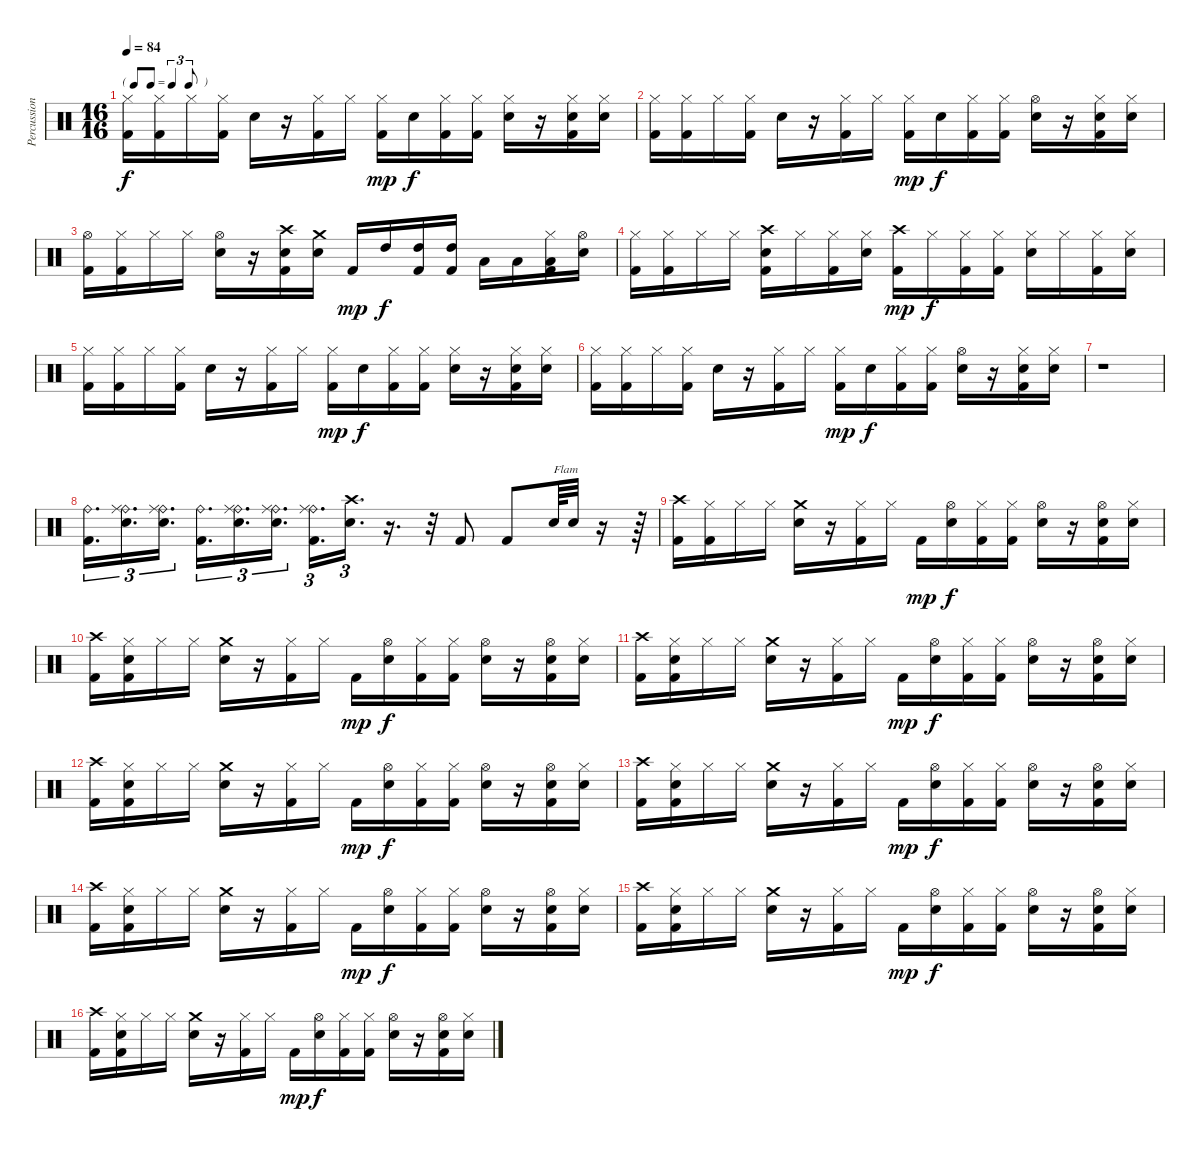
\track ("Percussion" "Percussion") {instrument percussion}
\staff {score}
\articulation defaults
\ts (16 16)
\tf triplet8th
\tempo 84
\clef neutral
\ks c
("Hi-Hat (closed)" "Kick (hit) 2").16{dy f} ("Hi-Hat (closed)" "Kick (hit) 2").16 "Hi-Hat (closed)".16 ("Hi-Hat (closed)" "Kick (hit) 2").16 "Electric Snare (hit)".16 r.16 ("Hi-Hat (closed)" "Kick (hit) 2").16 "Hi-Hat (closed)".16 ("Hi-Hat (closed)" "Kick (hit) 2").16{dy mp} "Electric Snare (hit)".16{dy f} ("Hi-Hat (closed)" "Kick (hit) 2").16 ("Hi-Hat (closed)" "Kick (hit) 2").16 ("Hi-Hat (closed)" "Electric Snare (hit)").16 r.16 ("Hi-Hat (closed)" "Electric Snare (hit)" "Kick (hit) 2").16 ("Hi-Hat (closed)" "Electric Snare (hit)").16 |
("Hi-Hat (closed)" "Kick (hit) 2").16 ("Hi-Hat (closed)" "Kick (hit) 2").16 "Hi-Hat (closed)".16 ("Hi-Hat (closed)" "Kick (hit) 2").16 "Electric Snare (hit)".16 r.16 ("Hi-Hat (closed)" "Kick (hit) 2").16 "Hi-Hat (closed)".16 ("Hi-Hat (closed)" "Kick (hit) 2").16{dy mp} "Electric Snare (hit)".16{dy f} ("Hi-Hat (closed)" "Kick (hit) 2").16 ("Hi-Hat (closed)" "Kick (hit) 2").16 ("Hi-Hat (open)" "Electric Snare (hit)").16 r.16 ("Hi-Hat (closed)" "Electric Snare (hit)" "Kick (hit) 2").16 ("Hi-Hat (closed)" "Electric Snare (hit)").16 |
("Hi-Hat (open)" "Kick (hit) 2").16 ("Hi-Hat (closed)" "Kick (hit) 2").16 "Hi-Hat (closed)".16 "Hi-Hat (closed)".16 ("Hi-Hat (open)" "Electric Snare (hit)").16 r.16 ("Crash high (hit)" "Electric Snare (hit)" "Kick (hit) 2").16 ("Crash medium (hit)" "Electric Snare (hit)").16 "Kick (hit) 2".16{dy mp} "High Tom (hit)".16{dy f} ("High Tom (hit)" "Kick (hit) 2").16 ("High Tom (hit)" "Kick (hit) 2").16 "Low Tom (hit)".16 "Low Tom (hit)".16 ("Hi-Hat (closed)" "Low Tom (hit)" "Kick (hit) 2").16 ("Hi-Hat (open)" "Electric Snare (hit)").16 |
("Hi-Hat (closed)" "Kick (hit) 2").16 ("Hi-Hat (closed)" "Kick (hit) 2").16 "Hi-Hat (closed)".16 "Hi-Hat (closed)".16 ("Crash high (hit)" "Electric Snare (hit)" "Kick (hit) 2").16 "Hi-Hat (closed)".16 ("Hi-Hat (closed)" "Kick (hit) 2").16 ("Hi-Hat (closed)" "Electric Snare (hit)").16 ("Crash high (hit)" "Kick (hit) 2").16{dy mp} "Hi-Hat (closed)".16{dy f} ("Hi-Hat (closed)" "Kick (hit) 2").16 ("Hi-Hat (closed)" "Kick (hit) 2").16 ("Hi-Hat (closed)" "Electric Snare (hit)").16 "Hi-Hat (closed)".16 ("Hi-Hat (closed)" "Kick (hit) 2").16 ("Hi-Hat (closed)" "Electric Snare (hit)").16 |
("Hi-Hat (closed)" "Kick (hit) 2").16 ("Hi-Hat (closed)" "Kick (hit) 2").16 "Hi-Hat (closed)".16 ("Hi-Hat (closed)" "Kick (hit) 2").16 "Electric Snare (hit)".16 r.16 ("Hi-Hat (closed)" "Kick (hit) 2").16 "Hi-Hat (closed)".16 ("Hi-Hat (closed)" "Kick (hit) 2").16{dy mp} "Electric Snare (hit)".16{dy f} ("Hi-Hat (closed)" "Kick (hit) 2").16 ("Hi-Hat (closed)" "Kick (hit) 2").16 ("Hi-Hat (closed)" "Electric Snare (hit)").16 r.16 ("Hi-Hat (closed)" "Electric Snare (hit)" "Kick (hit) 2").16 ("Hi-Hat (closed)" "Electric Snare (hit)").16 |
("Hi-Hat (closed)" "Kick (hit) 2").16 ("Hi-Hat (closed)" "Kick (hit) 2").16 "Hi-Hat (closed)".16 ("Hi-Hat (closed)" "Kick (hit) 2").16 "Electric Snare (hit)".16 r.16 ("Hi-Hat (closed)" "Kick (hit) 2").16 "Hi-Hat (closed)".16 ("Hi-Hat (closed)" "Kick (hit) 2").16{dy mp} "Electric Snare (hit)".16{dy f} ("Hi-Hat (closed)" "Kick (hit) 2").16 ("Hi-Hat (closed)" "Kick (hit) 2").16 ("Hi-Hat (open)" "Electric Snare (hit)").16 r.16 ("Hi-Hat (closed)" "Electric Snare (hit)" "Kick (hit) 2").16 ("Hi-Hat (closed)" "Electric Snare (hit)").16 |
r.1 |
("Ride (bell)" "Kick (hit) 2").16{d tu (3 2)} ("Ride (bell)" "Ride (middle)" "Electric Snare (hit)").16{d tu (3 2)} ("Ride (bell)" "Ride (middle)" "Electric Snare (hit)").16{d tu (3 2)} ("Ride (bell)" "Kick (hit) 2").16{d tu (3 2)} ("Ride (bell)" "Ride (middle)" "Electric Snare (hit)").16{d tu (3 2)} ("Ride (bell)" "Ride (middle)" "Electric Snare (hit)").16{d tu (3 2)} ("Ride (bell)" "Ride (middle)" "Kick (hit) 2").16{d tu (3 2)} ("Crash high (hit)" "Electric Snare (hit)").16{d tu (3 2)} r.16{d} r.32 "Kick (hit) 2".8 "Kick (hit) 2".8 "Electric Snare (hit)".64{txt "Flam"} "Electric Snare (hit)".32 r.16 r.64 |
("Crash high (hit)" "Kick (hit) 2").16 ("Hi-Hat (closed)" "Kick (hit) 2").16 "Hi-Hat (closed)".16 "Hi-Hat (closed)".16 ("Crash medium (hit)" "Electric Snare (hit)").16 r.16 ("Hi-Hat (closed)" "Kick (hit) 2").16 "Hi-Hat (closed)".16 "Kick (hit) 2".16{dy mp} ("Hi-Hat (open)" "Electric Snare (hit)").16{dy f} ("Hi-Hat (closed)" "Kick (hit) 2").16 ("Hi-Hat (closed)" "Kick (hit) 2").16 ("Hi-Hat (open)" "Electric Snare (hit)").16 r.16 ("Hi-Hat (open)" "Electric Snare (hit)" "Kick (hit) 2").16 ("Hi-Hat (closed)" "Electric Snare (hit)").16 |
("Crash high (hit)" "Kick (hit) 2").16 ("Hi-Hat (closed)" "Electric Snare (hit)" "Kick (hit) 2").16 "Hi-Hat (closed)".16 "Hi-Hat (closed)".16 ("Crash medium (hit)" "Electric Snare (hit)").16 r.16 ("Hi-Hat (closed)" "Kick (hit) 2").16 "Hi-Hat (closed)".16 "Kick (hit) 2".16{dy mp} ("Hi-Hat (open)" "Electric Snare (hit)").16{dy f} ("Hi-Hat (closed)" "Kick (hit) 2").16 ("Hi-Hat (closed)" "Kick (hit) 2").16 ("Hi-Hat (open)" "Electric Snare (hit)").16 r.16 ("Hi-Hat (open)" "Electric Snare (hit)" "Kick (hit) 2").16 ("Hi-Hat (closed)" "Electric Snare (hit)").16 |
("Crash high (hit)" "Kick (hit) 2").16 ("Hi-Hat (closed)" "Electric Snare (hit)" "Kick (hit) 2").16 "Hi-Hat (closed)".16 "Hi-Hat (closed)".16 ("Crash medium (hit)" "Electric Snare (hit)").16 r.16 ("Hi-Hat (closed)" "Kick (hit) 2").16 "Hi-Hat (closed)".16 "Kick (hit) 2".16{dy mp} ("Hi-Hat (open)" "Electric Snare (hit)").16{dy f} ("Hi-Hat (closed)" "Kick (hit) 2").16 ("Hi-Hat (closed)" "Kick (hit) 2").16 ("Hi-Hat (open)" "Electric Snare (hit)").16 r.16 ("Hi-Hat (open)" "Electric Snare (hit)" "Kick (hit) 2").16 ("Hi-Hat (closed)" "Electric Snare (hit)").16 |
("Crash high (hit)" "Kick (hit) 2").16 ("Hi-Hat (closed)" "Electric Snare (hit)" "Kick (hit) 2").16 "Hi-Hat (closed)".16 "Hi-Hat (closed)".16 ("Crash medium (hit)" "Electric Snare (hit)").16 r.16 ("Hi-Hat (closed)" "Kick (hit) 2").16 "Hi-Hat (closed)".16 "Kick (hit) 2".16{dy mp} ("Hi-Hat (open)" "Electric Snare (hit)").16{dy f} ("Hi-Hat (closed)" "Kick (hit) 2").16 ("Hi-Hat (closed)" "Kick (hit) 2").16 ("Hi-Hat (open)" "Electric Snare (hit)").16 r.16 ("Hi-Hat (open)" "Electric Snare (hit)" "Kick (hit) 2").16 ("Hi-Hat (closed)" "Electric Snare (hit)").16 |
("Crash high (hit)" "Kick (hit) 2").16 ("Hi-Hat (closed)" "Electric Snare (hit)" "Kick (hit) 2").16 "Hi-Hat (closed)".16 "Hi-Hat (closed)".16 ("Crash medium (hit)" "Electric Snare (hit)").16 r.16 ("Hi-Hat (closed)" "Kick (hit) 2").16 "Hi-Hat (closed)".16 "Kick (hit) 2".16{dy mp} ("Hi-Hat (open)" "Electric Snare (hit)").16{dy f} ("Hi-Hat (closed)" "Kick (hit) 2").16 ("Hi-Hat (closed)" "Kick (hit) 2").16 ("Hi-Hat (open)" "Electric Snare (hit)").16 r.16 ("Hi-Hat (open)" "Electric Snare (hit)" "Kick (hit) 2").16 ("Hi-Hat (closed)" "Electric Snare (hit)").16 |
("Crash high (hit)" "Kick (hit) 2").16 ("Hi-Hat (closed)" "Electric Snare (hit)" "Kick (hit) 2").16 "Hi-Hat (closed)".16 "Hi-Hat (closed)".16 ("Crash medium (hit)" "Electric Snare (hit)").16 r.16 ("Hi-Hat (closed)" "Kick (hit) 2").16 "Hi-Hat (closed)".16 "Kick (hit) 2".16{dy mp} ("Hi-Hat (open)" "Electric Snare (hit)").16{dy f} ("Hi-Hat (closed)" "Kick (hit) 2").16 ("Hi-Hat (closed)" "Kick (hit) 2").16 ("Hi-Hat (open)" "Electric Snare (hit)").16 r.16 ("Hi-Hat (open)" "Electric Snare (hit)" "Kick (hit) 2").16 ("Hi-Hat (closed)" "Electric Snare (hit)").16 |
("Crash high (hit)" "Kick (hit) 2").16 ("Hi-Hat (closed)" "Electric Snare (hit)" "Kick (hit) 2").16 "Hi-Hat (closed)".16 "Hi-Hat (closed)".16 ("Crash medium (hit)" "Electric Snare (hit)").16 r.16 ("Hi-Hat (closed)" "Kick (hit) 2").16 "Hi-Hat (closed)".16 "Kick (hit) 2".16{dy mp} ("Hi-Hat (open)" "Electric Snare (hit)").16{dy f} ("Hi-Hat (closed)" "Kick (hit) 2").16 ("Hi-Hat (closed)" "Kick (hit) 2").16 ("Hi-Hat (open)" "Electric Snare (hit)").16 r.16 ("Hi-Hat (open)" "Electric Snare (hit)" "Kick (hit) 2").16 ("Hi-Hat (closed)" "Electric Snare (hit)").16 |
("Crash high (hit)" "Kick (hit) 2").16 ("Hi-Hat (closed)" "Electric Snare (hit)" "Kick (hit) 2").16 "Hi-Hat (closed)".16 "Hi-Hat (closed)".16 ("Crash medium (hit)" "Electric Snare (hit)").16 r.16 ("Hi-Hat (closed)" "Kick (hit) 2").16 "Hi-Hat (closed)".16 "Kick (hit) 2".16{dy mp} ("Hi-Hat (open)" "Electric Snare (hit)").16{dy f} ("Hi-Hat (closed)" "Kick (hit) 2").16 ("Hi-Hat (closed)" "Kick (hit) 2").16 ("Hi-Hat (open)" "Electric Snare (hit)").16 r.16 ("Hi-Hat (open)" "Electric Snare (hit)" "Kick (hit) 2").16 ("Hi-Hat (closed)" "Electric Snare (hit)").16
